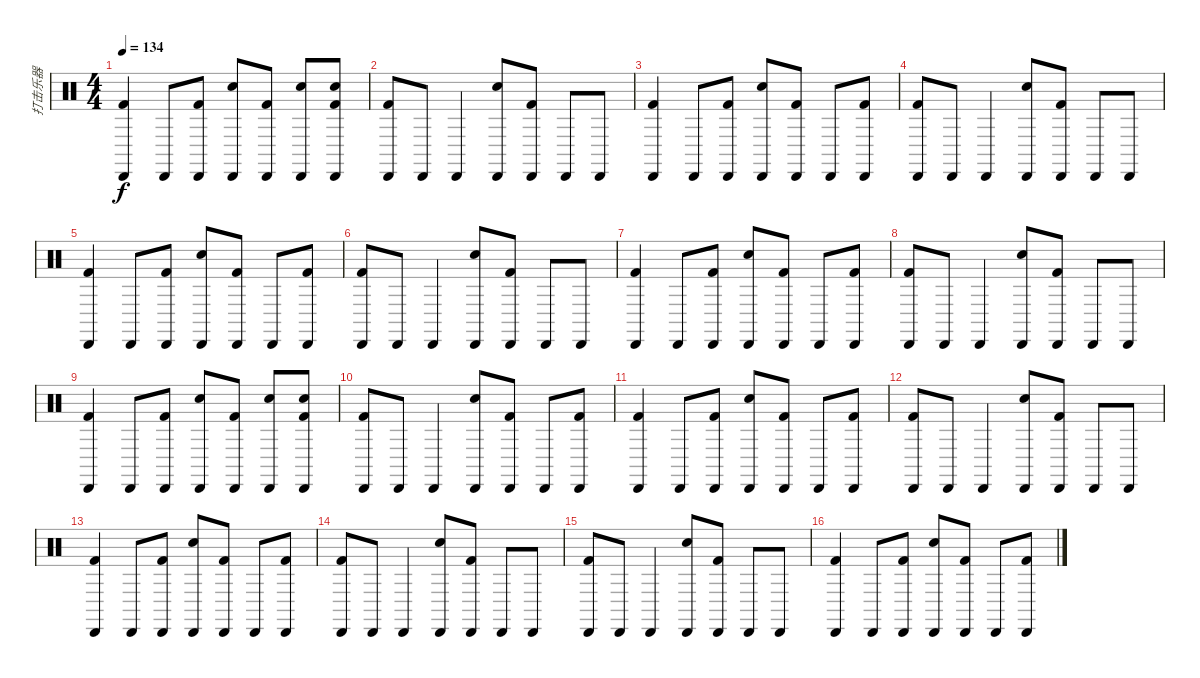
\track ("打击乐器" "打击乐器") {instrument percussion}
\staff {score}
\articulation defaults
\ts (4 4)
\tempo 134
\clef neutral
\ks c
("Cabasa (hit)" "Kick (hit) 2").4{dy f} "Cabasa (hit)".8 ("Cabasa (hit)" "Kick (hit) 2").8 ("Snare (hit) 2" "Cabasa (hit)").8 ("Cabasa (hit)" "Kick (hit) 2").8 ("Snare (hit) 2" "Cabasa (hit)").8 ("Snare (hit) 2" "Cabasa (hit)" "Kick (hit) 2").8 |
("Cabasa (hit)" "Kick (hit) 2").8 "Cabasa (hit)".8 "Cabasa (hit)".4 ("Snare (hit) 2" "Cabasa (hit)").8 ("Cabasa (hit)" "Kick (hit) 2").8 "Cabasa (hit)".8 "Cabasa (hit)".8 |
("Cabasa (hit)" "Kick (hit) 2").4 "Cabasa (hit)".8 ("Cabasa (hit)" "Kick (hit) 2").8 ("Snare (hit) 2" "Cabasa (hit)").8 ("Cabasa (hit)" "Kick (hit) 2").8 "Cabasa (hit)".8 ("Cabasa (hit)" "Kick (hit) 2").8 |
("Cabasa (hit)" "Kick (hit) 2").8 "Cabasa (hit)".8 "Cabasa (hit)".4 ("Snare (hit) 2" "Cabasa (hit)").8 ("Cabasa (hit)" "Kick (hit) 2").8 "Cabasa (hit)".8 "Cabasa (hit)".8 |
("Cabasa (hit)" "Kick (hit) 2").4 "Cabasa (hit)".8 ("Cabasa (hit)" "Kick (hit) 2").8 ("Snare (hit) 2" "Cabasa (hit)").8 ("Cabasa (hit)" "Kick (hit) 2").8 "Cabasa (hit)".8 ("Cabasa (hit)" "Kick (hit) 2").8 |
("Cabasa (hit)" "Kick (hit) 2").8 "Cabasa (hit)".8 "Cabasa (hit)".4 ("Snare (hit) 2" "Cabasa (hit)").8 ("Cabasa (hit)" "Kick (hit) 2").8 "Cabasa (hit)".8 "Cabasa (hit)".8 |
("Cabasa (hit)" "Kick (hit) 2").4 "Cabasa (hit)".8 ("Cabasa (hit)" "Kick (hit) 2").8 ("Snare (hit) 2" "Cabasa (hit)").8 ("Cabasa (hit)" "Kick (hit) 2").8 "Cabasa (hit)".8 ("Cabasa (hit)" "Kick (hit) 2").8 |
("Cabasa (hit)" "Kick (hit) 2").8 "Cabasa (hit)".8 "Cabasa (hit)".4 ("Snare (hit) 2" "Cabasa (hit)").8 ("Cabasa (hit)" "Kick (hit) 2").8 "Cabasa (hit)".8 "Cabasa (hit)".8 |
("Cabasa (hit)" "Kick (hit) 2").4 "Cabasa (hit)".8 ("Cabasa (hit)" "Kick (hit) 2").8 ("Snare (hit) 2" "Cabasa (hit)").8 ("Cabasa (hit)" "Kick (hit) 2").8 ("Snare (hit) 2" "Cabasa (hit)").8 ("Snare (hit) 2" "Cabasa (hit)" "Kick (hit) 2").8 |
("Cabasa (hit)" "Kick (hit) 2").8 "Cabasa (hit)".8 "Cabasa (hit)".4 ("Snare (hit) 2" "Cabasa (hit)").8 ("Cabasa (hit)" "Kick (hit) 2").8 "Cabasa (hit)".8 ("Cabasa (hit)" "Kick (hit) 2").8 |
("Cabasa (hit)" "Kick (hit) 2").4 "Cabasa (hit)".8 ("Cabasa (hit)" "Kick (hit) 2").8 ("Snare (hit) 2" "Cabasa (hit)").8 ("Cabasa (hit)" "Kick (hit) 2").8 "Cabasa (hit)".8 ("Cabasa (hit)" "Kick (hit) 2").8 |
("Cabasa (hit)" "Kick (hit) 2").8 "Cabasa (hit)".8 "Cabasa (hit)".4 ("Snare (hit) 2" "Cabasa (hit)").8 ("Cabasa (hit)" "Kick (hit) 2").8 "Cabasa (hit)".8 "Cabasa (hit)".8 |
("Cabasa (hit)" "Kick (hit) 2").4 "Cabasa (hit)".8 ("Cabasa (hit)" "Kick (hit) 2").8 ("Snare (hit) 2" "Cabasa (hit)").8 ("Cabasa (hit)" "Kick (hit) 2").8 "Cabasa (hit)".8 ("Cabasa (hit)" "Kick (hit) 2").8 |
("Cabasa (hit)" "Kick (hit) 2").8 "Cabasa (hit)".8 "Cabasa (hit)".4 ("Snare (hit) 2" "Cabasa (hit)").8 ("Cabasa (hit)" "Kick (hit) 2").8 "Cabasa (hit)".8 "Cabasa (hit)".8 |
("Cabasa (hit)" "Kick (hit) 2").8 "Cabasa (hit)".8 "Cabasa (hit)".4 ("Snare (hit) 2" "Cabasa (hit)").8 ("Cabasa (hit)" "Kick (hit) 2").8 "Cabasa (hit)".8 "Cabasa (hit)".8 |
("Cabasa (hit)" "Kick (hit) 2").4 "Cabasa (hit)".8 ("Cabasa (hit)" "Kick (hit) 2").8 ("Snare (hit) 2" "Cabasa (hit)").8 ("Cabasa (hit)" "Kick (hit) 2").8 "Cabasa (hit)".8 ("Cabasa (hit)" "Kick (hit) 2").8
